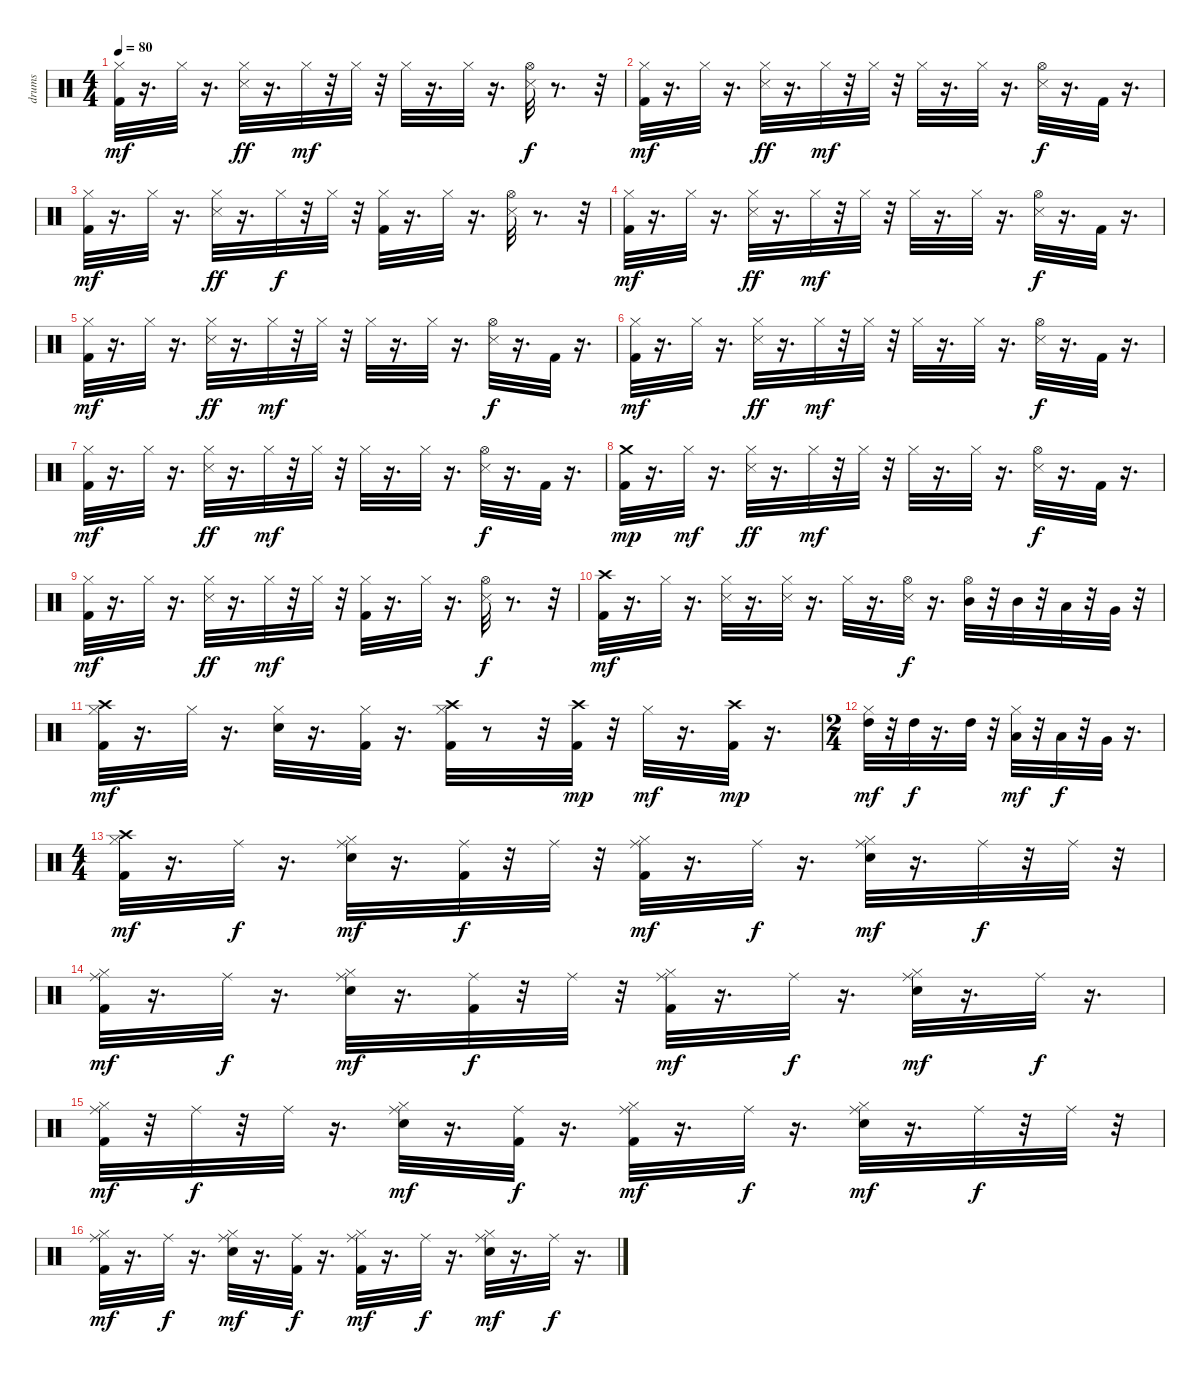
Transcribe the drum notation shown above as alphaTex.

\track ("drums" "drums") {instrument percussion}
\staff {score}
\articulation defaults
\ts (4 4)
\tempo 80
\clef neutral
\ks c
("Hi-Hat (closed)" "Kick (hit) 2").32{dy mf} r.16{d} "Hi-Hat (closed)".32 r.16{d} ("Snare (side stick) 3" "Hi-Hat (closed)").32{dy ff} r.16{d} "Hi-Hat (closed)".32{dy mf} r.32 "Hi-Hat (closed)".32 r.32 "Hi-Hat (closed)".32 r.16{d} "Hi-Hat (closed)".32 r.16{d} ("Hi-Hat (open)" "Snare (side stick) 3").32{dy f} r.8{d} r.32 |
("Hi-Hat (closed)" "Kick (hit) 2").32{dy mf} r.16{d} "Hi-Hat (closed)".32 r.16{d} ("Hi-Hat (closed)" "Snare (side stick) 3").32{dy ff} r.16{d} "Hi-Hat (closed)".32{dy mf} r.32 "Hi-Hat (closed)".32 r.32 "Hi-Hat (closed)".32 r.16{d} "Hi-Hat (closed)".32 r.16{d} ("Hi-Hat (open)" "Snare (side stick) 3").32{dy f} r.16{d} "Kick (hit) 2".32 r.16{d} |
("Kick (hit) 2" "Hi-Hat (closed)").32{dy mf} r.16{d} "Hi-Hat (closed)".32 r.16{d} ("Snare (side stick) 3" "Hi-Hat (closed)").32{dy ff} r.16{d} "Hi-Hat (closed)".32{dy f} r.32 "Hi-Hat (closed)".32 r.32 ("Kick (hit) 2" "Hi-Hat (closed)").32 r.16{d} "Hi-Hat (closed)".32 r.16{d} ("Hi-Hat (open)" "Snare (side stick) 3").32 r.8{d} r.32 |
("Kick (hit) 2" "Hi-Hat (closed)").32{dy mf} r.16{d} "Hi-Hat (closed)".32 r.16{d} ("Hi-Hat (closed)" "Snare (side stick) 3").32{dy ff} r.16{d} "Hi-Hat (closed)".32{dy mf} r.32 "Hi-Hat (closed)".32 r.32 "Hi-Hat (closed)".32 r.16{d} "Hi-Hat (closed)".32 r.16{d} ("Hi-Hat (open)" "Snare (side stick) 3").32{dy f} r.16{d} "Kick (hit) 2".32 r.16{d} |
("Hi-Hat (closed)" "Kick (hit) 2").32{dy mf} r.16{d} "Hi-Hat (closed)".32 r.16{d} ("Hi-Hat (closed)" "Snare (side stick) 3").32{dy ff} r.16{d} "Hi-Hat (closed)".32{dy mf} r.32 "Hi-Hat (closed)".32 r.32 "Hi-Hat (closed)".32 r.16{d} "Hi-Hat (closed)".32 r.16{d} ("Snare (side stick) 3" "Hi-Hat (open)").32{dy f} r.16{d} "Kick (hit) 2".32 r.16{d} |
("Kick (hit) 2" "Hi-Hat (closed)").32{dy mf} r.16{d} "Hi-Hat (closed)".32 r.16{d} ("Snare (side stick) 3" "Hi-Hat (closed)").32{dy ff} r.16{d} "Hi-Hat (closed)".32{dy mf} r.32 "Hi-Hat (closed)".32 r.32 "Hi-Hat (closed)".32 r.16{d} "Hi-Hat (closed)".32 r.16{d} ("Snare (side stick) 3" "Hi-Hat (open)").32{dy f} r.16{d} "Kick (hit) 2".32 r.16{d} |
("Kick (hit) 2" "Hi-Hat (closed)").32{dy mf} r.16{d} "Hi-Hat (closed)".32 r.16{d} ("Hi-Hat (closed)" "Snare (side stick) 3").32{dy ff} r.16{d} "Hi-Hat (closed)".32{dy mf} r.32 "Hi-Hat (closed)".32 r.32 "Hi-Hat (closed)".32 r.16{d} "Hi-Hat (closed)".32 r.16{d} ("Snare (side stick) 3" "Hi-Hat (open)").32{dy f} r.16{d} "Kick (hit) 2".32 r.16{d} |
("Kick (hit) 2" "Crash medium (hit)").32{dy mp} r.16{d} "Hi-Hat (closed)".32{dy mf} r.16{d} ("Snare (side stick) 3" "Hi-Hat (closed)").32{dy ff} r.16{d} "Hi-Hat (closed)".32{dy mf} r.32 "Hi-Hat (closed)".32 r.32 "Hi-Hat (closed)".32 r.16{d} "Hi-Hat (closed)".32 r.16{d} ("Snare (side stick) 3" "Hi-Hat (open)").32{dy f} r.16{d} "Kick (hit) 2".32 r.16{d} |
("Kick (hit) 2" "Hi-Hat (closed)").32{dy mf} r.16{d} "Hi-Hat (closed)".32 r.16{d} ("Snare (side stick) 3" "Hi-Hat (closed)").32{dy ff} r.16{d} "Hi-Hat (closed)".32{dy mf} r.32 "Hi-Hat (closed)".32 r.32 ("Hi-Hat (closed)" "Kick (hit) 2").32 r.16{d} "Hi-Hat (closed)".32 r.16{d} ("Snare (side stick) 3" "Hi-Hat (open)").32{dy f} r.8{d} r.32 |
("Crash high (hit)" "Kick (hit) 2").32{dy mf} r.16{d} "Hi-Hat (closed)".32 r.16{d} ("Snare (side stick) 3" "Hi-Hat (closed)").32 r.16{d} ("Snare (side stick) 3" "Hi-Hat (closed)").32 r.16{d} "Hi-Hat (closed)".32 r.16{d} ("Snare (side stick) 3" "Hi-Hat (open)").32{dy f} r.16{d} ("Mid Tom (hit)" "Hi-Hat (open)").32 r.32 "Mid Tom (hit)".32 r.32 "Low Tom (hit)".32 r.32 "Very Low Tom (hit)".32 r.32 |
("Hi-Hat (closed)" "Crash high (hit)" "Kick (hit) 2").32{dy mf} r.16{d} "Hi-Hat (closed)".32 r.16{d} ("Electric Snare (hit)" "Hi-Hat (closed)").32 r.16{d} ("Kick (hit) 2" "Hi-Hat (closed)").32 r.16{d} ("Crash high (hit)" "Kick (hit) 2" "Hi-Hat (closed)").32 r.8 r.32 ("Crash high (hit)" "Kick (hit) 2").32{dy mp} r.32 "Hi-Hat (closed)".32{dy mf} r.16{d} ("Crash high (hit)" "Kick (hit) 2").32{dy mp} r.16{d} |
\ts (2 4)
("Hi-Hat (closed)" "High Tom (hit)").32{dy mf} r.32 "High Tom (hit)".32{dy f} r.16{d} "High Tom (hit)".32 r.32 ("Hi-Hat (closed)" "Low Tom (hit)").32{dy mf} r.32 "Low Tom (hit)".32{dy f} r.32 "Very Low Tom (hit)".32 r.16{d} |
\ts (4 4)
("Hi-Hat (closed)" "Kick (hit) 2" "Crash high (hit)").32{dy mf} r.16{d} "Ride (middle)".32{dy f} r.16{d} ("Hi-Hat (closed)" "Ride (middle)" "Electric Snare (hit)").32{dy mf} r.16{d} ("Ride (middle)" "Kick (hit) 2").32{dy f} r.32 "Ride (middle)".32 r.32 ("Hi-Hat (closed)" "Ride (middle)" "Kick (hit) 2").32{dy mf} r.16{d} "Ride (middle)".32{dy f} r.16{d} ("Hi-Hat (closed)" "Ride (middle)" "Electric Snare (hit)").32{dy mf} r.16{d} "Ride (middle)".32{dy f} r.32 "Ride (middle)".32 r.32 |
("Hi-Hat (closed)" "Ride (middle)" "Kick (hit) 2").32{dy mf} r.16{d} "Ride (middle)".32{dy f} r.16{d} ("Hi-Hat (closed)" "Ride (middle)" "Electric Snare (hit)").32{dy mf} r.16{d} ("Ride (middle)" "Kick (hit) 2").32{dy f} r.32 "Ride (middle)".32 r.32 ("Hi-Hat (closed)" "Ride (middle)" "Kick (hit) 2").32{dy mf} r.16{d} "Ride (middle)".32{dy f} r.16{d} ("Hi-Hat (closed)" "Ride (middle)" "Electric Snare (hit)").32{dy mf} r.16{d} "Ride (middle)".32{dy f} r.16{d} |
("Ride (middle)" "Hi-Hat (closed)" "Kick (hit) 2").32{dy mf} r.32 "Ride (middle)".32{dy f} r.32 "Ride (middle)".32 r.16{d} ("Ride (middle)" "Hi-Hat (closed)" "Electric Snare (hit)").32{dy mf} r.16{d} ("Ride (middle)" "Kick (hit) 2").32{dy f} r.16{d} ("Ride (middle)" "Hi-Hat (closed)" "Kick (hit) 2").32{dy mf} r.16{d} "Ride (middle)".32{dy f} r.16{d} ("Ride (middle)" "Hi-Hat (closed)" "Electric Snare (hit)").32{dy mf} r.16{d} "Ride (middle)".32{dy f} r.32 "Ride (middle)".32 r.32 |
("Ride (middle)" "Hi-Hat (closed)" "Kick (hit) 2").32{dy mf} r.16{d} "Ride (middle)".32{dy f} r.16{d} ("Ride (middle)" "Hi-Hat (closed)" "Electric Snare (hit)").32{dy mf} r.16{d} ("Ride (middle)" "Kick (hit) 2").32{dy f} r.16{d} ("Ride (middle)" "Hi-Hat (closed)" "Kick (hit) 2").32{dy mf} r.16{d} "Ride (middle)".32{dy f} r.16{d} ("Ride (middle)" "Hi-Hat (closed)" "Electric Snare (hit)").32{dy mf} r.16{d} "Ride (middle)".32{dy f} r.16{d}
